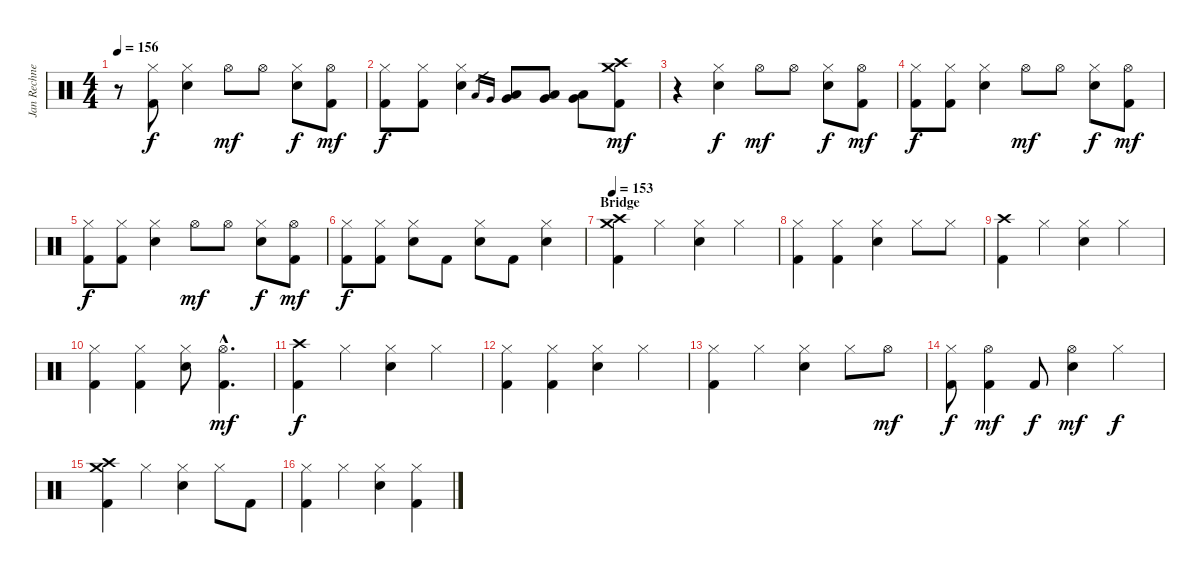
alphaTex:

\track ("Jan Rechnerger" "Jan Rechne") {instrument percussion}
\staff {score}
\articulation defaults
\ts (4 4)
\tempo 156
\clef neutral
\ks c
r.8{dy mf} ("Hi-Hat (closed)" "Kick (hit) 2").8{dy f} ("Hi-Hat (closed)" "Snare (hit) 2").4 "Hi-Hat (open)".8{dy mf} "Hi-Hat (open)".8 ("Hi-Hat (closed)" "Snare (hit) 2").8{dy f} ("Hi-Hat (open)" "Kick (hit) 2").8{dy mf} |
("Hi-Hat (closed)" "Kick (hit) 2").8{dy f} ("Hi-Hat (closed)" "Kick (hit) 2").8 ("Hi-Hat (closed)" "Snare (hit) 2").4 "Low Tom (hit)".16{gr} "Very Low Tom (hit)".16{gr} ("Low Tom (hit)" "Very Low Tom (hit)").8 ("Low Tom (hit)" "Very Low Tom (hit)").8 ("Low Tom (hit)" "Very Low Tom (hit)").8 ("Crash high (hit)" "Crash medium (hit)" "Kick (hit) 2").8{dy mf} |
r.4 ("Hi-Hat (closed)" "Snare (hit) 2").4{dy f} "Hi-Hat (open)".8{dy mf} "Hi-Hat (open)".8 ("Hi-Hat (closed)" "Snare (hit) 2").8{dy f} ("Hi-Hat (open)" "Kick (hit) 2").8{dy mf} |
("Hi-Hat (closed)" "Kick (hit) 2").8{dy f} ("Hi-Hat (closed)" "Kick (hit) 2").8 ("Hi-Hat (closed)" "Snare (hit) 2").4 "Hi-Hat (open)".8{dy mf} "Hi-Hat (open)".8 ("Hi-Hat (closed)" "Snare (hit) 2").8{dy f} ("Hi-Hat (open)" "Kick (hit) 2").8{dy mf} |
("Hi-Hat (closed)" "Kick (hit) 2").8{dy f} ("Hi-Hat (closed)" "Kick (hit) 2").8 ("Hi-Hat (closed)" "Snare (hit) 2").4 "Hi-Hat (open)".8{dy mf} "Hi-Hat (open)".8 ("Hi-Hat (closed)" "Snare (hit) 2").8{dy f} ("Hi-Hat (open)" "Kick (hit) 2").8{dy mf} |
("Hi-Hat (closed)" "Kick (hit) 2").8{dy f} ("Hi-Hat (closed)" "Kick (hit) 2").8 ("Hi-Hat (closed)" "Snare (hit) 2").8 "Kick (hit) 2".8 ("Hi-Hat (closed)" "Snare (hit) 2").8 "Kick (hit) 2".8 ("Hi-Hat (closed)" "Snare (hit) 2").4 |
\section ("" "Bridge")
\tempo 153
("Crash high (hit)" "Crash medium (hit)" "Kick (hit) 2").4 "Hi-Hat (closed)".4 ("Hi-Hat (closed)" "Snare (hit) 2").4 "Hi-Hat (closed)".4 |
("Hi-Hat (closed)" "Kick (hit) 2").4 ("Hi-Hat (closed)" "Kick (hit) 2").4 ("Hi-Hat (closed)" "Snare (hit) 2").4 "Hi-Hat (closed)".8 "Hi-Hat (closed)".8 |
("Crash high (hit)" "Kick (hit) 2").4 "Hi-Hat (closed)".4 ("Hi-Hat (closed)" "Snare (hit) 2").4 "Hi-Hat (closed)".4 |
("Hi-Hat (closed)" "Kick (hit) 2").4 ("Hi-Hat (closed)" "Kick (hit) 2").4 ("Hi-Hat (closed)" "Snare (hit) 2").8 ("Hi-Hat (open)"{hac} "Kick (hit) 2"{hac}).4{d dy mf} |
("Crash high (hit)" "Kick (hit) 2").4{dy f} "Hi-Hat (closed)".4 ("Hi-Hat (closed)" "Snare (hit) 2").4 "Hi-Hat (closed)".4 |
("Hi-Hat (closed)" "Kick (hit) 2").4 ("Hi-Hat (closed)" "Kick (hit) 2").4 ("Hi-Hat (closed)" "Snare (hit) 2").4 "Hi-Hat (closed)".4 |
("Hi-Hat (closed)" "Kick (hit) 2").4 "Hi-Hat (closed)".4 ("Hi-Hat (closed)" "Snare (hit) 2").4 "Hi-Hat (closed)".8 "Hi-Hat (open)".8{dy mf} |
("Hi-Hat (closed)" "Kick (hit) 2").8{dy f} ("Hi-Hat (open)" "Kick (hit) 2").4{dy mf} "Kick (hit) 2".8{dy f} ("Hi-Hat (open)" "Snare (hit) 2").4{dy mf} "Hi-Hat (closed)".4{dy f} |
("Crash high (hit)" "Crash medium (hit)" "Kick (hit) 2").4 "Hi-Hat (closed)".4 ("Hi-Hat (closed)" "Snare (hit) 2").4 "Hi-Hat (closed)".8 "Kick (hit) 2".8 |
("Hi-Hat (closed)" "Kick (hit) 2").4 "Hi-Hat (closed)".4 ("Hi-Hat (closed)" "Snare (hit) 2").4 ("Hi-Hat (closed)" "Kick (hit) 2").4
